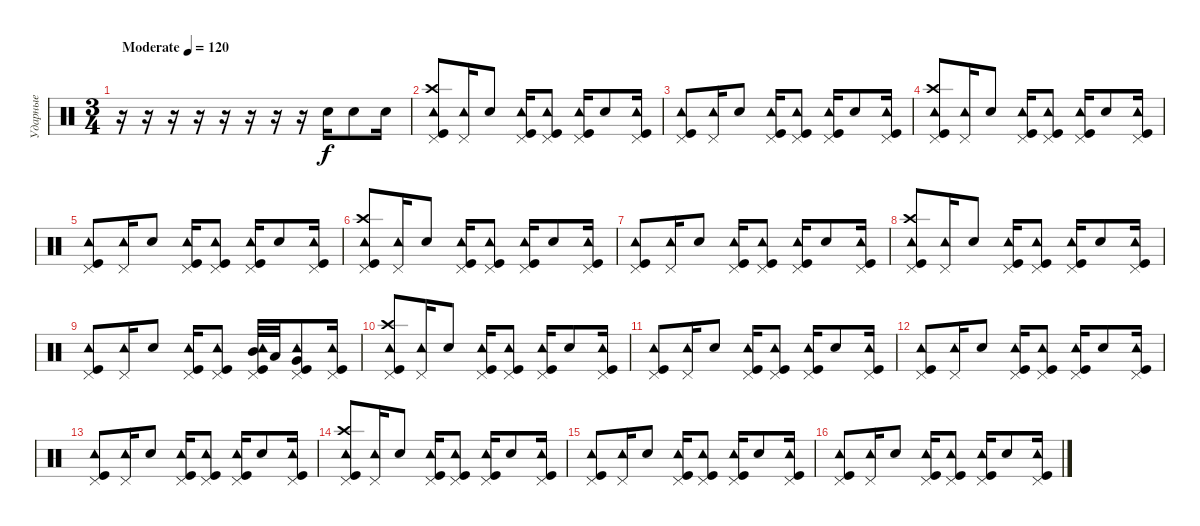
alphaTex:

\track ("Ударные" "Ударные") {instrument percussion}
\staff {score}
\articulation defaults
\ts (3 4)
\tempo (120 "Moderate")
\clef neutral
\ks c
r.16{dy f} r.16 r.16 r.16 r.16 r.16 r.16 r.16 "Snare (hit) 2".16 "Snare (hit) 2".8 "Snare (hit) 2".16 |
("Kick (hit)" "Crash high (hit)" "Pedal Hi-Hat (hit)" "Tambourine (hit)").8 ("Pedal Hi-Hat (hit)" "Tambourine (hit)").16 "Snare (hit) 2".8 ("Kick (hit)" "Pedal Hi-Hat (hit)" "Tambourine (hit)").16 ("Kick (hit)" "Pedal Hi-Hat (hit)" "Tambourine (hit)").8 ("Kick (hit)" "Pedal Hi-Hat (hit)" "Tambourine (hit)").16 "Snare (hit) 2".8 ("Kick (hit)" "Pedal Hi-Hat (hit)" "Tambourine (hit)").16 |
("Kick (hit)" "Pedal Hi-Hat (hit)" "Tambourine (hit)").8 ("Pedal Hi-Hat (hit)" "Tambourine (hit)").16 "Snare (hit) 2".8 ("Kick (hit)" "Pedal Hi-Hat (hit)" "Tambourine (hit)").16 ("Kick (hit)" "Pedal Hi-Hat (hit)" "Tambourine (hit)").8 ("Kick (hit)" "Pedal Hi-Hat (hit)" "Tambourine (hit)").16 "Snare (hit) 2".8 ("Kick (hit)" "Pedal Hi-Hat (hit)" "Tambourine (hit)").16 |
("Kick (hit)" "Crash high (hit)" "Pedal Hi-Hat (hit)" "Tambourine (hit)").8 ("Pedal Hi-Hat (hit)" "Tambourine (hit)").16 "Snare (hit) 2".8 ("Kick (hit)" "Pedal Hi-Hat (hit)" "Tambourine (hit)").16 ("Kick (hit)" "Pedal Hi-Hat (hit)" "Tambourine (hit)").8 ("Kick (hit)" "Pedal Hi-Hat (hit)" "Tambourine (hit)").16 "Snare (hit) 2".8 ("Kick (hit)" "Pedal Hi-Hat (hit)" "Tambourine (hit)").16 |
("Kick (hit)" "Pedal Hi-Hat (hit)" "Tambourine (hit)").8 ("Pedal Hi-Hat (hit)" "Tambourine (hit)").16 "Snare (hit) 2".8 ("Kick (hit)" "Pedal Hi-Hat (hit)" "Tambourine (hit)").16 ("Kick (hit)" "Pedal Hi-Hat (hit)" "Tambourine (hit)").8 ("Kick (hit)" "Pedal Hi-Hat (hit)" "Tambourine (hit)").16 "Snare (hit) 2".8 ("Kick (hit)" "Pedal Hi-Hat (hit)" "Tambourine (hit)").16 |
("Kick (hit)" "Crash high (hit)" "Pedal Hi-Hat (hit)" "Tambourine (hit)").8 ("Pedal Hi-Hat (hit)" "Tambourine (hit)").16 "Snare (hit) 2".8 ("Kick (hit)" "Pedal Hi-Hat (hit)" "Tambourine (hit)").16 ("Kick (hit)" "Pedal Hi-Hat (hit)" "Tambourine (hit)").8 ("Kick (hit)" "Pedal Hi-Hat (hit)" "Tambourine (hit)").16 "Snare (hit) 2".8 ("Kick (hit)" "Pedal Hi-Hat (hit)" "Tambourine (hit)").16 |
("Kick (hit)" "Pedal Hi-Hat (hit)" "Tambourine (hit)").8 ("Pedal Hi-Hat (hit)" "Tambourine (hit)").16 "Snare (hit) 2".8 ("Kick (hit)" "Pedal Hi-Hat (hit)" "Tambourine (hit)").16 ("Kick (hit)" "Pedal Hi-Hat (hit)" "Tambourine (hit)").8 ("Kick (hit)" "Pedal Hi-Hat (hit)" "Tambourine (hit)").16 "Snare (hit) 2".8 ("Kick (hit)" "Pedal Hi-Hat (hit)" "Tambourine (hit)").16 |
("Kick (hit)" "Crash high (hit)" "Pedal Hi-Hat (hit)" "Tambourine (hit)").8 ("Pedal Hi-Hat (hit)" "Tambourine (hit)").16 "Snare (hit) 2".8 ("Kick (hit)" "Pedal Hi-Hat (hit)" "Tambourine (hit)").16 ("Kick (hit)" "Pedal Hi-Hat (hit)" "Tambourine (hit)").8 ("Kick (hit)" "Pedal Hi-Hat (hit)" "Tambourine (hit)").16 "Snare (hit) 2".8 ("Kick (hit)" "Pedal Hi-Hat (hit)" "Tambourine (hit)").16 |
("Kick (hit)" "Pedal Hi-Hat (hit)" "Tambourine (hit)").8 ("Pedal Hi-Hat (hit)" "Tambourine (hit)").16 "Snare (hit) 2".8 ("Kick (hit)" "Pedal Hi-Hat (hit)" "Tambourine (hit)").16 ("Kick (hit)" "Pedal Hi-Hat (hit)" "Tambourine (hit)").8 ("Kick (hit)" "Mid Tom (hit)" "Pedal Hi-Hat (hit)" "Tambourine (hit)").32 "Low Tom (hit)".32 ("Kick (hit)" "Very Low Tom (hit)" "Pedal Hi-Hat (hit)" "Tambourine (hit)").8 ("Kick (hit)" "Pedal Hi-Hat (hit)" "Tambourine (hit)").16 |
("Kick (hit)" "Crash high (hit)" "Pedal Hi-Hat (hit)" "Tambourine (hit)").8 ("Pedal Hi-Hat (hit)" "Tambourine (hit)").16 "Snare (hit) 2".8 ("Kick (hit)" "Pedal Hi-Hat (hit)" "Tambourine (hit)").16 ("Kick (hit)" "Pedal Hi-Hat (hit)" "Tambourine (hit)").8 ("Kick (hit)" "Pedal Hi-Hat (hit)" "Tambourine (hit)").16 "Snare (hit) 2".8 ("Kick (hit)" "Pedal Hi-Hat (hit)" "Tambourine (hit)").16 |
("Kick (hit)" "Pedal Hi-Hat (hit)" "Tambourine (hit)").8 ("Pedal Hi-Hat (hit)" "Tambourine (hit)").16 "Snare (hit) 2".8 ("Kick (hit)" "Pedal Hi-Hat (hit)" "Tambourine (hit)").16 ("Kick (hit)" "Pedal Hi-Hat (hit)" "Tambourine (hit)").8 ("Kick (hit)" "Pedal Hi-Hat (hit)" "Tambourine (hit)").16 "Snare (hit) 2".8 ("Kick (hit)" "Pedal Hi-Hat (hit)" "Tambourine (hit)").16 |
("Kick (hit)" "Pedal Hi-Hat (hit)" "Tambourine (hit)").8 ("Pedal Hi-Hat (hit)" "Tambourine (hit)").16 "Snare (hit) 2".8 ("Kick (hit)" "Pedal Hi-Hat (hit)" "Tambourine (hit)").16 ("Kick (hit)" "Pedal Hi-Hat (hit)" "Tambourine (hit)").8 ("Kick (hit)" "Pedal Hi-Hat (hit)" "Tambourine (hit)").16 "Snare (hit) 2".8 ("Kick (hit)" "Pedal Hi-Hat (hit)" "Tambourine (hit)").16 |
("Kick (hit)" "Pedal Hi-Hat (hit)" "Tambourine (hit)").8 ("Pedal Hi-Hat (hit)" "Tambourine (hit)").16 "Snare (hit) 2".8 ("Kick (hit)" "Pedal Hi-Hat (hit)" "Tambourine (hit)").16 ("Kick (hit)" "Pedal Hi-Hat (hit)" "Tambourine (hit)").8 ("Kick (hit)" "Pedal Hi-Hat (hit)" "Tambourine (hit)").16 "Snare (hit) 2".8 ("Kick (hit)" "Pedal Hi-Hat (hit)" "Tambourine (hit)").16 |
("Kick (hit)" "Crash high (hit)" "Pedal Hi-Hat (hit)" "Tambourine (hit)").8 ("Pedal Hi-Hat (hit)" "Tambourine (hit)").16 "Snare (hit) 2".8 ("Kick (hit)" "Pedal Hi-Hat (hit)" "Tambourine (hit)").16 ("Kick (hit)" "Pedal Hi-Hat (hit)" "Tambourine (hit)").8 ("Kick (hit)" "Pedal Hi-Hat (hit)" "Tambourine (hit)").16 "Snare (hit) 2".8 ("Kick (hit)" "Pedal Hi-Hat (hit)" "Tambourine (hit)").16 |
("Kick (hit)" "Pedal Hi-Hat (hit)" "Tambourine (hit)").8 ("Pedal Hi-Hat (hit)" "Tambourine (hit)").16 "Snare (hit) 2".8 ("Kick (hit)" "Pedal Hi-Hat (hit)" "Tambourine (hit)").16 ("Kick (hit)" "Pedal Hi-Hat (hit)" "Tambourine (hit)").8 ("Kick (hit)" "Pedal Hi-Hat (hit)" "Tambourine (hit)").16 "Snare (hit) 2".8 ("Kick (hit)" "Pedal Hi-Hat (hit)" "Tambourine (hit)").16 |
("Kick (hit)" "Pedal Hi-Hat (hit)" "Tambourine (hit)").8 ("Pedal Hi-Hat (hit)" "Tambourine (hit)").16 "Snare (hit) 2".8 ("Kick (hit)" "Pedal Hi-Hat (hit)" "Tambourine (hit)").16 ("Kick (hit)" "Pedal Hi-Hat (hit)" "Tambourine (hit)").8 ("Kick (hit)" "Pedal Hi-Hat (hit)" "Tambourine (hit)").16 "Snare (hit) 2".8 ("Kick (hit)" "Pedal Hi-Hat (hit)" "Tambourine (hit)").16
